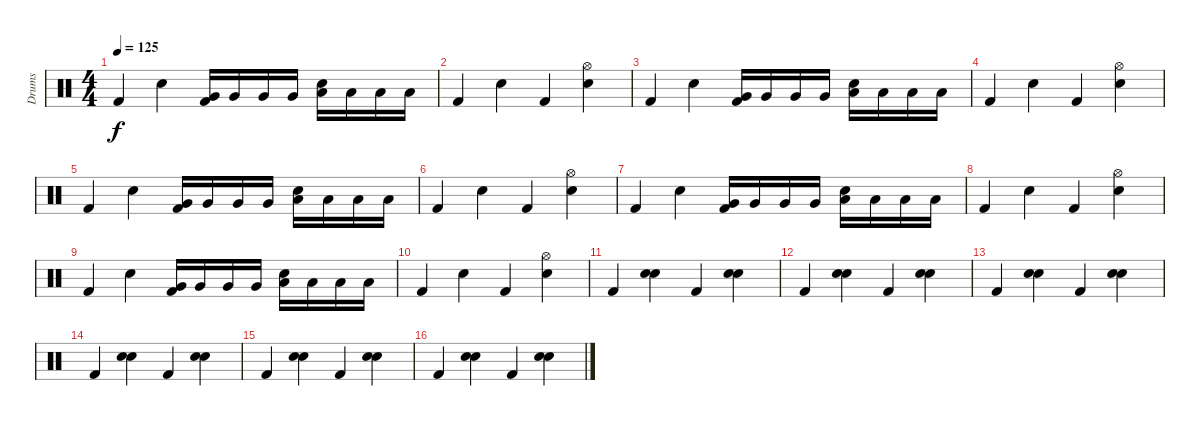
\track ("Drums" "Drums") {instrument percussion}
\staff {score}
\articulation defaults
\ts (4 4)
\tempo 125
\clef neutral
\ks c "Kick (hit) 2".4{dy f} "Electric Snare (hit)".4
("Very Low Tom (hit)" "Kick (hit) 2").16 "Very Low Tom (hit)".16 "Very Low Tom (hit)".16 "Very Low Tom (hit)".16 ("Low Floor Tom (hit)" "Electric Snare (hit)").16 "Low Floor Tom (hit)".16 "Low Floor Tom (hit)".16 "Low Floor Tom (hit)".16 |
"Kick (hit) 2".4 "Electric Snare (hit)".4 "Kick (hit) 2".4 ("Electric Snare (hit)" "Hi-Hat (open)").4 |
"Kick (hit) 2".4 "Electric Snare (hit)".4 ("Very Low Tom (hit)" "Kick (hit) 2").16 "Very Low Tom (hit)".16 "Very Low Tom (hit)".16 "Very Low Tom (hit)".16 ("Low Floor Tom (hit)" "Electric Snare (hit)").16 "Low Floor Tom (hit)".16 "Low Floor Tom (hit)".16 "Low Floor Tom (hit)".16 |
"Kick (hit) 2".4 "Electric Snare (hit)".4 "Kick (hit) 2".4 ("Electric Snare (hit)" "Hi-Hat (open)").4 |
"Kick (hit) 2".4 "Electric Snare (hit)".4 ("Very Low Tom (hit)" "Kick (hit) 2").16 "Very Low Tom (hit)".16 "Very Low Tom (hit)".16 "Very Low Tom (hit)".16 ("Low Floor Tom (hit)" "Electric Snare (hit)").16 "Low Floor Tom (hit)".16 "Low Floor Tom (hit)".16 "Low Floor Tom (hit)".16 |
"Kick (hit) 2".4 "Electric Snare (hit)".4 "Kick (hit) 2".4 ("Electric Snare (hit)" "Hi-Hat (open)").4 |
"Kick (hit) 2".4 "Electric Snare (hit)".4 ("Very Low Tom (hit)" "Kick (hit) 2").16 "Very Low Tom (hit)".16 "Very Low Tom (hit)".16 "Very Low Tom (hit)".16 ("Low Floor Tom (hit)" "Electric Snare (hit)").16 "Low Floor Tom (hit)".16 "Low Floor Tom (hit)".16 "Low Floor Tom (hit)".16 |
"Kick (hit) 2".4 "Electric Snare (hit)".4 "Kick (hit) 2".4 ("Electric Snare (hit)" "Hi-Hat (open)").4 |
"Kick (hit) 2".4 "Electric Snare (hit)".4 ("Very Low Tom (hit)" "Kick (hit) 2").16 "Very Low Tom (hit)".16 "Very Low Tom (hit)".16 "Very Low Tom (hit)".16 ("Low Floor Tom (hit)" "Electric Snare (hit)").16 "Low Floor Tom (hit)".16 "Low Floor Tom (hit)".16 "Low Floor Tom (hit)".16 |
"Kick (hit) 2".4 "Electric Snare (hit)".4 "Kick (hit) 2".4 ("Electric Snare (hit)" "Hi-Hat (open)").4 |
"Kick (hit) 2".4 ("Electric Snare (hit)" "Hand Clap (hit)").4 "Kick (hit) 2".4 ("Electric Snare (hit)" "Hand Clap (hit)").4 |
"Kick (hit) 2".4 ("Electric Snare (hit)" "Hand Clap (hit)").4 "Kick (hit) 2".4 ("Electric Snare (hit)" "Hand Clap (hit)").4 |
"Kick (hit) 2".4 ("Electric Snare (hit)" "Hand Clap (hit)").4 "Kick (hit) 2".4 ("Electric Snare (hit)" "Hand Clap (hit)").4 |
"Kick (hit) 2".4 ("Electric Snare (hit)" "Hand Clap (hit)").4 "Kick (hit) 2".4 ("Electric Snare (hit)" "Hand Clap (hit)").4 |
"Kick (hit) 2".4 ("Electric Snare (hit)" "Hand Clap (hit)").4 "Kick (hit) 2".4 ("Electric Snare (hit)" "Hand Clap (hit)").4 |
"Kick (hit) 2".4 ("Electric Snare (hit)" "Hand Clap (hit)").4 "Kick (hit) 2".4 ("Electric Snare (hit)" "Hand Clap (hit)").4
